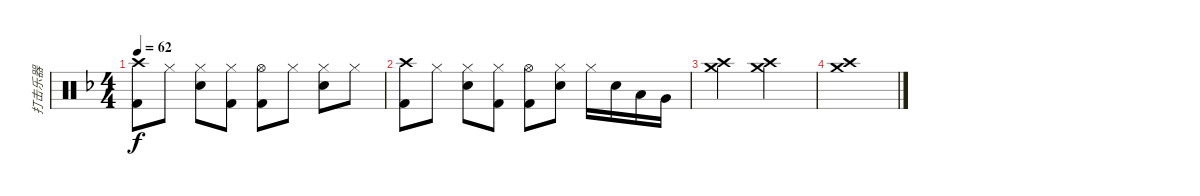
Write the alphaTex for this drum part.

\track ("打击乐器" "打击乐器") {instrument percussion}
\staff {score}
\articulation defaults
\ts (4 4)
\tempo 62
\clef neutral
\ks f
("Crash high (hit)" "Kick (hit) 2").8{dy f} "Hi-Hat (closed)".8 ("Hi-Hat (closed)" "Snare (hit) 2").8 ("Hi-Hat (closed)" "Kick (hit) 2").8 ("Hi-Hat (open)" "Kick (hit) 2").8 "Hi-Hat (closed)".8 ("Hi-Hat (closed)" "Snare (hit) 2").8 "Hi-Hat (closed)".8 |
("Crash high (hit)" "Kick (hit) 2").8 "Hi-Hat (closed)".8 ("Hi-Hat (closed)" "Snare (hit) 2").8 ("Hi-Hat (closed)" "Kick (hit) 2").8 ("Hi-Hat (open)" "Kick (hit) 2").8 ("Hi-Hat (closed)" "Snare (hit) 2").8 "Hi-Hat (closed)".16 "Snare (hit) 2".16 "Low Tom (hit)".16 "Very Low Tom (hit)".16 |
("Crash medium (hit)" "Crash high (hit)").2 ("Crash medium (hit)" "Crash high (hit)").2 |
("Crash medium (hit)" "Crash high (hit)").1
